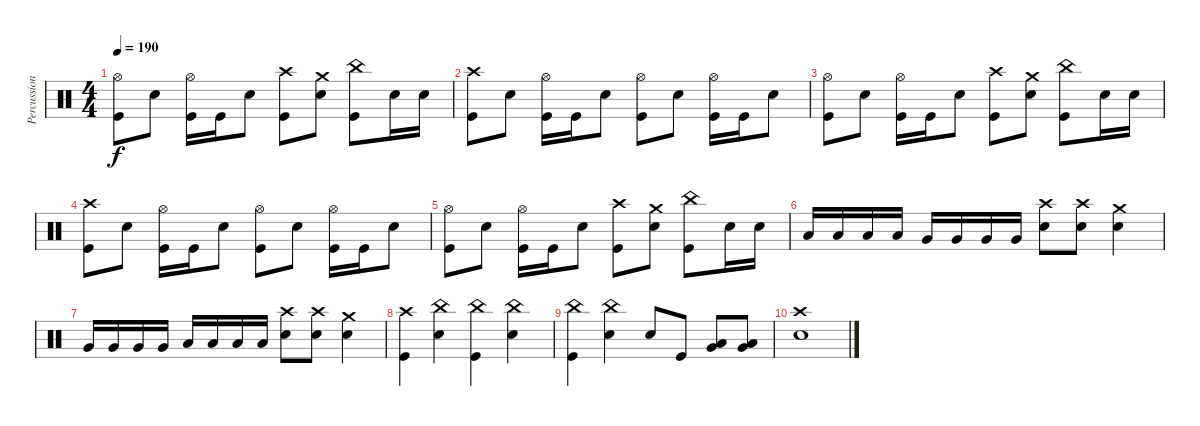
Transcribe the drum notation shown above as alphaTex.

\track ("Percussion" "Percussion") {instrument percussion}
\staff {score}
\articulation defaults
\ts (4 4)
\tempo 190
\clef neutral
\ks c
("Hi-Hat (open)" "Kick (hit)").8{dy f} "Snare (hit) 2".8 ("Hi-Hat (open)" "Kick (hit)").16 "Kick (hit)".16 "Snare (hit) 2".8 ("Crash high (hit)" "Kick (hit)").8 ("Crash medium (hit)" "Snare (hit) 2").8 ("China (hit)" "Kick (hit)").8 "Snare (hit) 2".16 "Snare (hit) 2".16 |
("Crash high (hit)" "Kick (hit)").8 "Snare (hit) 2".8 ("Hi-Hat (open)" "Kick (hit)").16 "Kick (hit)".16 "Snare (hit) 2".8 ("Hi-Hat (open)" "Kick (hit)").8 "Snare (hit) 2".8 ("Hi-Hat (open)" "Kick (hit)").16 "Kick (hit)".16 "Snare (hit) 2".8 |
("Hi-Hat (open)" "Kick (hit)").8 "Snare (hit) 2".8 ("Hi-Hat (open)" "Kick (hit)").16 "Kick (hit)".16 "Snare (hit) 2".8 ("Crash high (hit)" "Kick (hit)").8 ("Crash medium (hit)" "Snare (hit) 2").8 ("China (hit)" "Kick (hit)").8 "Snare (hit) 2".16 "Snare (hit) 2".16 |
("Crash high (hit)" "Kick (hit)").8 "Snare (hit) 2".8 ("Hi-Hat (open)" "Kick (hit)").16 "Kick (hit)".16 "Snare (hit) 2".8 ("Hi-Hat (open)" "Kick (hit)").8 "Snare (hit) 2".8 ("Hi-Hat (open)" "Kick (hit)").16 "Kick (hit)".16 "Snare (hit) 2".8 |
("Hi-Hat (open)" "Kick (hit)").8 "Snare (hit) 2".8 ("Hi-Hat (open)" "Kick (hit)").16 "Kick (hit)".16 "Snare (hit) 2".8 ("Crash high (hit)" "Kick (hit)").8 ("Crash medium (hit)" "Snare (hit) 2").8 ("China (hit)" "Kick (hit)").8 "Snare (hit) 2".16 "Snare (hit) 2".16 |
"Low Tom (hit)".16 "Low Tom (hit)".16 "Low Tom (hit)".16 "Low Tom (hit)".16 "Very Low Tom (hit)".16 "Very Low Tom (hit)".16 "Very Low Tom (hit)".16 "Very Low Tom (hit)".16 ("Crash high (hit)" "Snare (hit) 2").8 ("Crash high (hit)" "Snare (hit) 2").8 ("Crash medium (hit)" "Snare (hit) 2").4 |
"Very Low Tom (hit)".16 "Very Low Tom (hit)".16 "Very Low Tom (hit)".16 "Very Low Tom (hit)".16 "Low Floor Tom (hit)".16 "Low Floor Tom (hit)".16 "Low Floor Tom (hit)".16 "Low Floor Tom (hit)".16 ("Crash high (hit)" "Snare (hit) 2").8 ("Crash high (hit)" "Snare (hit) 2").8 ("Crash medium (hit)" "Snare (hit) 2").4 |
("Crash high (hit)" "Kick (hit)").4 ("China (hit)" "Snare (hit) 2").4 ("China (hit)" "Kick (hit)").4 ("China (hit)" "Snare (hit) 2").4 |
("China (hit)" "Kick (hit)").4 ("China (hit)" "Snare (hit) 2").4 "Snare (hit) 2".8 "Kick (hit)".8 ("Low Tom (hit)" "Very Low Tom (hit)").8 ("Very Low Tom (hit)" "Low Floor Tom (hit)").8 |
("Crash high (hit)" "Snare (hit) 2").1
